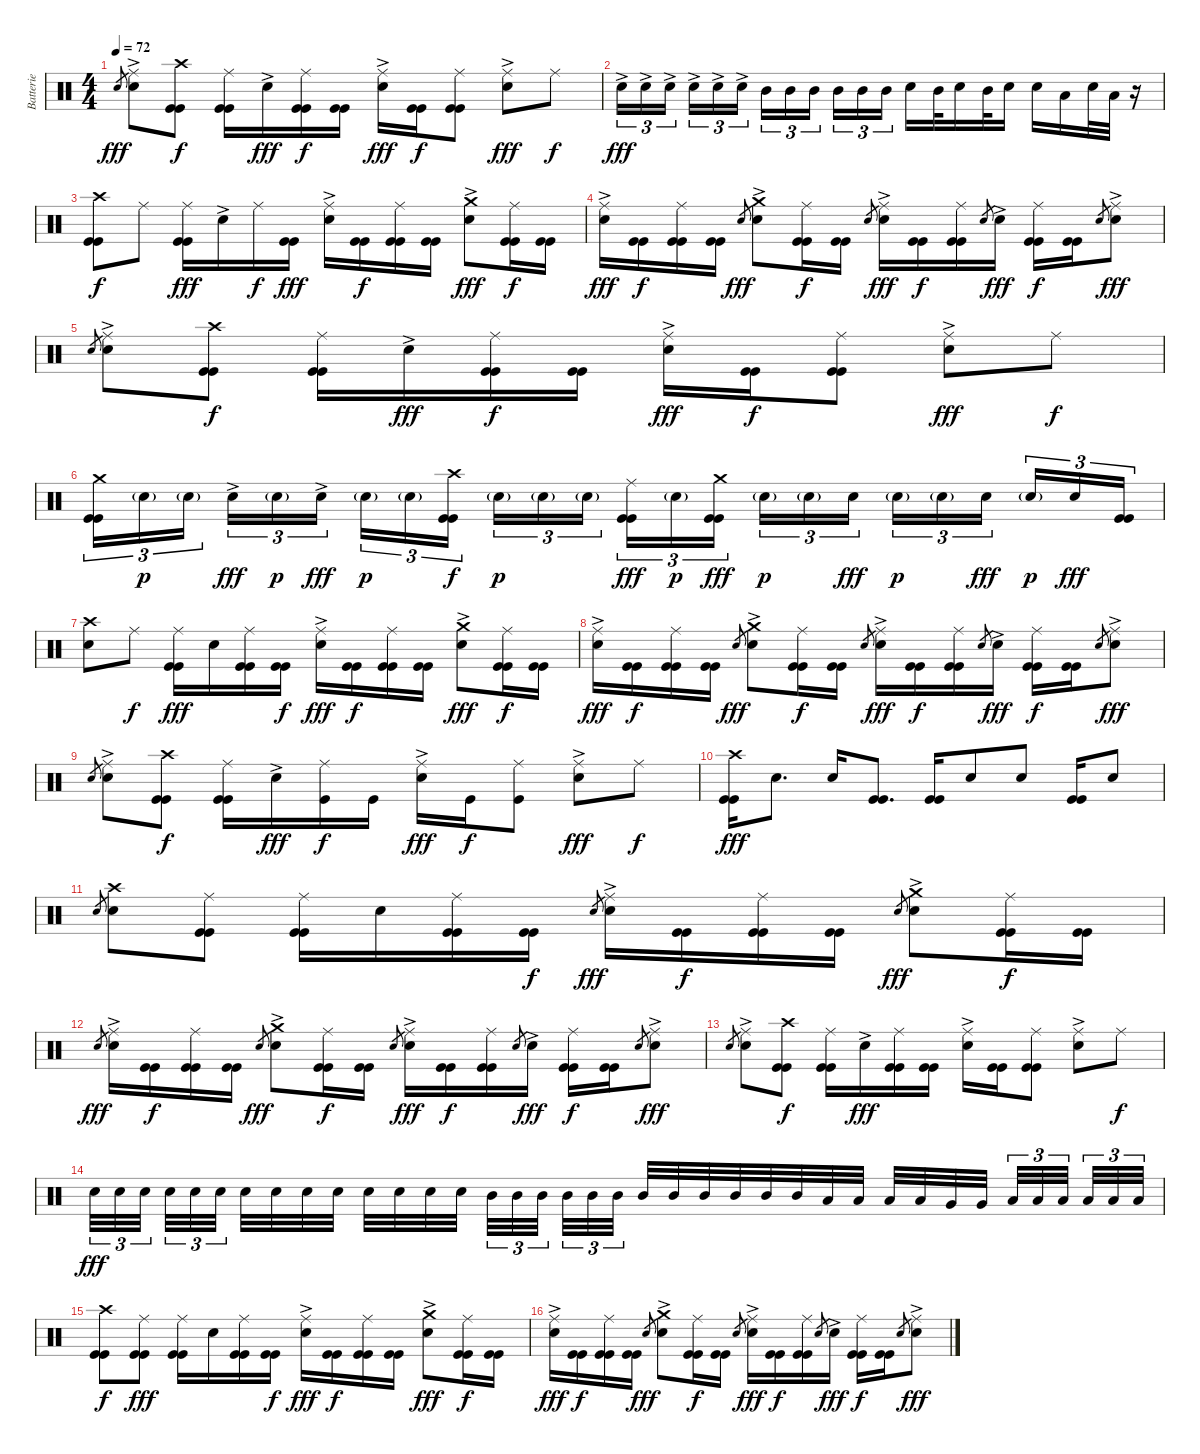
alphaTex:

\track ("Batterie" "Batterie") {instrument percussion}
\staff {score}
\articulation defaults
\ts (4 4)
\tempo 72
\clef neutral
\ks c "Electric Snare (hit)".8{gr dy fff}
("Ride (middle)" "Electric Snare (hit)"{ac}).8 ("Crash high (hit)" "Kick (hit)" "Kick (hit)").8{dy f} ("Ride (middle)" "Kick (hit)" "Kick (hit)").16 "Electric Snare (hit)"{ac}.16{dy fff} ("Ride (middle)" "Kick (hit)" "Kick (hit)").16{dy f} ("Kick (hit)" "Kick (hit)").16 ("Ride (middle)" "Electric Snare (hit)"{ac}).16{dy fff} ("Kick (hit)" "Kick (hit)").16{dy f} ("Ride (middle)" "Kick (hit)" "Kick (hit)").8 ("Ride (middle)" "Electric Snare (hit)"{ac}).8{dy fff} "Ride (middle)".8{dy f} |
"Electric Snare (hit)"{ac}.16{tu (3 2) dy fff} "Electric Snare (hit)"{ac}.16{tu (3 2)} "Electric Snare (hit)"{ac}.16{tu (3 2)} "Electric Snare (hit)"{ac}.16{tu (3 2)} "Electric Snare (hit)"{ac}.16{tu (3 2)} "Electric Snare (hit)"{ac}.16{tu (3 2)} "Mid Tom (hit)".16{tu (3 2)} "Mid Tom (hit)".16{tu (3 2)} "Mid Tom (hit)".16{tu (3 2)} "Mid Tom (hit)".16{tu (3 2)} "Mid Tom (hit)".16{tu (3 2)} "Mid Tom (hit)".16{tu (3 2)} "Electric Snare (hit)".16 "Mid Tom (hit)".32 "Electric Snare (hit)".16 "Mid Tom (hit)".32 "Electric Snare (hit)".16 "Electric Snare (hit)".16 "Low Tom (hit)".16 "Electric Snare (hit)".32 "Low Tom (hit)".32 r.16 |
("Crash high (hit)" "Kick (hit)" "Kick (hit)").8{dy f} "Ride (middle)".8 ("Ride (middle)" "Kick (hit)" "Kick (hit)").16{dy fff} "Electric Snare (hit)"{ac}.16 "Ride (middle)".16{dy f} ("Kick (hit)" "Kick (hit)").16{dy fff} ("Ride (middle)" "Electric Snare (hit)"{ac}).16 ("Kick (hit)" "Kick (hit)").16{dy f} ("Ride (middle)" "Kick (hit)" "Kick (hit)").16 ("Kick (hit)" "Kick (hit)").16 ("Crash medium (hit)" "Electric Snare (hit)"{ac}).8{dy fff} ("Ride (middle)" "Kick (hit)" "Kick (hit)").16{dy f} ("Kick (hit)" "Kick (hit)").16 |
("Ride (middle)" "Electric Snare (hit)"{ac}).16{dy fff} ("Kick (hit)" "Kick (hit)").16{dy f} ("Ride (middle)" "Kick (hit)" "Kick (hit)").16 ("Kick (hit)" "Kick (hit)").16 "Electric Snare (hit)".8{gr dy fff} ("Crash medium (hit)" "Electric Snare (hit)"{ac}).8 ("Ride (middle)" "Kick (hit)" "Kick (hit)").16{dy f} ("Kick (hit)" "Kick (hit)").16 "Electric Snare (hit)".8{gr} ("Ride (middle)" "Electric Snare (hit)"{ac}).16{dy fff} ("Kick (hit)" "Kick (hit)").16{dy f} ("Ride (middle)" "Kick (hit)" "Kick (hit)").16 "Electric Snare (hit)".8{gr} "Electric Snare (hit)"{ac}.16{dy fff} ("Ride (middle)" "Kick (hit)" "Kick (hit)").16{dy f} ("Kick (hit)" "Kick (hit)").16 "Electric Snare (hit)".8{gr} ("Ride (middle)" "Electric Snare (hit)"{ac}).8{dy fff} |
"Electric Snare (hit)".8{gr} ("Ride (middle)" "Electric Snare (hit)"{ac}).8 ("Crash high (hit)" "Kick (hit)" "Kick (hit)").8{dy f} ("Ride (middle)" "Kick (hit)" "Kick (hit)").16 "Electric Snare (hit)"{ac}.16{dy fff} ("Ride (middle)" "Kick (hit)" "Kick (hit)").16{dy f} ("Kick (hit)" "Kick (hit)").16 ("Ride (middle)" "Electric Snare (hit)"{ac}).16{dy fff} ("Kick (hit)" "Kick (hit)").16{dy f} ("Ride (middle)" "Kick (hit)" "Kick (hit)").8 ("Ride (middle)" "Electric Snare (hit)"{ac}).8{dy fff} "Ride (middle)".8{dy f} |
("Crash medium (hit)" "Kick (hit)" "Kick (hit)").16{tu (3 2)} "Electric Snare (hit)"{g}.16{tu (3 2) dy p} "Electric Snare (hit)"{g}.16{tu (3 2)} "Electric Snare (hit)"{ac}.16{tu (3 2) dy fff} "Electric Snare (hit)"{g}.16{tu (3 2) dy p} "Electric Snare (hit)"{ac}.16{tu (3 2) dy fff} "Electric Snare (hit)"{g}.16{tu (3 2) dy p} "Electric Snare (hit)"{g}.16{tu (3 2)} ("Crash high (hit)" "Kick (hit)" "Kick (hit)").16{tu (3 2) dy f} "Electric Snare (hit)"{g}.16{tu (3 2) dy p} "Electric Snare (hit)"{g}.16{tu (3 2)} "Electric Snare (hit)"{g}.16{tu (3 2)} ("Ride (middle)" "Kick (hit)" "Kick (hit)").16{tu (3 2) dy fff} "Electric Snare (hit)"{g}.16{tu (3 2) dy p} ("Crash medium (hit)" "Kick (hit)" "Kick (hit)").16{tu (3 2) dy fff} "Electric Snare (hit)"{g}.16{tu (3 2) dy p} "Electric Snare (hit)"{g}.16{tu (3 2)} "Electric Snare (hit)".16{tu (3 2) dy fff} "Electric Snare (hit)"{g}.16{tu (3 2) dy p} "Electric Snare (hit)"{g}.16{tu (3 2)} "Electric Snare (hit)".16{tu (3 2) dy fff} "Electric Snare (hit)"{g}.16{tu (3 2) dy p} "Electric Snare (hit)".16{tu (3 2) dy fff} ("Kick (hit)" "Kick (hit)").16{tu (3 2)} |
("Crash high (hit)" "Electric Snare (hit)").8 "Ride (middle)".8{dy f} ("Ride (middle)" "Kick (hit)" "Kick (hit)").16{dy fff} "Electric Snare (hit)".16 ("Ride (middle)" "Kick (hit)" "Kick (hit)").16 ("Kick (hit)" "Kick (hit)").16{dy f} ("Ride (middle)" "Electric Snare (hit)"{ac}).16{dy fff} ("Kick (hit)" "Kick (hit)").16{dy f} ("Ride (middle)" "Kick (hit)" "Kick (hit)").16 ("Kick (hit)" "Kick (hit)").16 ("Crash medium (hit)" "Electric Snare (hit)"{ac}).8{dy fff} ("Ride (middle)" "Kick (hit)" "Kick (hit)").16{dy f} ("Kick (hit)" "Kick (hit)").16 |
("Ride (middle)" "Electric Snare (hit)"{ac}).16{dy fff} ("Kick (hit)" "Kick (hit)").16{dy f} ("Ride (middle)" "Kick (hit)" "Kick (hit)").16 ("Kick (hit)" "Kick (hit)").16 "Electric Snare (hit)".8{gr dy fff} ("Crash medium (hit)" "Electric Snare (hit)"{ac}).8 ("Ride (middle)" "Kick (hit)" "Kick (hit)").16{dy f} ("Kick (hit)" "Kick (hit)").16 "Electric Snare (hit)".8{gr} ("Ride (middle)" "Electric Snare (hit)"{ac}).16{dy fff} ("Kick (hit)" "Kick (hit)").16{dy f} ("Ride (middle)" "Kick (hit)" "Kick (hit)").16 "Electric Snare (hit)".8{gr} "Electric Snare (hit)"{ac}.16{dy fff} ("Ride (middle)" "Kick (hit)" "Kick (hit)").16{dy f} ("Kick (hit)" "Kick (hit)").16 "Electric Snare (hit)".8{gr} ("Ride (middle)" "Electric Snare (hit)"{ac}).8{dy fff} |
"Electric Snare (hit)".8{gr} ("Ride (middle)" "Electric Snare (hit)"{ac}).8 ("Crash high (hit)" "Kick (hit)" "Kick (hit)").8{dy f} ("Ride (middle)" "Kick (hit)" "Kick (hit)").16 "Electric Snare (hit)"{ac}.16{dy fff} ("Ride (middle)" "Kick (hit)").16{dy f} "Kick (hit)".16 ("Ride (middle)" "Electric Snare (hit)"{ac}).16{dy fff} "Kick (hit)".16{dy f} ("Ride (middle)" "Kick (hit)").8 ("Ride (middle)" "Electric Snare (hit)"{ac}).8{dy fff} "Ride (middle)".8{dy f} |
("Crash high (hit)" "Kick (hit)" "Kick (hit)").16{dy fff} "Electric Snare (hit)".8{d} "Electric Snare (hit)".16 ("Kick (hit)" "Kick (hit)").8{d} ("Kick (hit)" "Kick (hit)").16 "Electric Snare (hit)".8 "Electric Snare (hit)".8 ("Kick (hit)" "Kick (hit)").16 "Electric Snare (hit)".8 |
"Electric Snare (hit)".8{gr} ("Crash high (hit)" "Electric Snare (hit)").8 ("Ride (middle)" "Kick (hit)" "Kick (hit)").8 ("Ride (middle)" "Kick (hit)" "Kick (hit)").16 "Electric Snare (hit)".16 ("Ride (middle)" "Kick (hit)" "Kick (hit)").16 ("Kick (hit)" "Kick (hit)").16{dy f} "Electric Snare (hit)".8{gr dy fff} ("Ride (middle)" "Electric Snare (hit)"{ac}).16 ("Kick (hit)" "Kick (hit)").16{dy f} ("Ride (middle)" "Kick (hit)" "Kick (hit)").16 ("Kick (hit)" "Kick (hit)").16 "Electric Snare (hit)".8{gr dy fff} ("Crash medium (hit)" "Electric Snare (hit)"{ac}).8 ("Ride (middle)" "Kick (hit)" "Kick (hit)").16{dy f} ("Kick (hit)" "Kick (hit)").16 |
"Electric Snare (hit)".8{gr dy fff} ("Ride (middle)" "Electric Snare (hit)"{ac}).16 ("Kick (hit)" "Kick (hit)").16{dy f} ("Ride (middle)" "Kick (hit)" "Kick (hit)").16 ("Kick (hit)" "Kick (hit)").16 "Electric Snare (hit)".8{gr dy fff} ("Crash medium (hit)" "Electric Snare (hit)"{ac}).8 ("Ride (middle)" "Kick (hit)" "Kick (hit)").16{dy f} ("Kick (hit)" "Kick (hit)").16 "Electric Snare (hit)".8{gr} ("Ride (middle)" "Electric Snare (hit)"{ac}).16{dy fff} ("Kick (hit)" "Kick (hit)").16{dy f} ("Ride (middle)" "Kick (hit)" "Kick (hit)").16 "Electric Snare (hit)".8{gr} "Electric Snare (hit)"{ac}.16{dy fff} ("Ride (middle)" "Kick (hit)" "Kick (hit)").16{dy f} ("Kick (hit)" "Kick (hit)").16 "Electric Snare (hit)".8{gr} ("Ride (middle)" "Electric Snare (hit)"{ac}).8{dy fff} |
"Electric Snare (hit)".8{gr} ("Ride (middle)" "Electric Snare (hit)"{ac}).8 ("Crash high (hit)" "Kick (hit)" "Kick (hit)").8{dy f} ("Ride (middle)" "Kick (hit)" "Kick (hit)").16 "Electric Snare (hit)"{ac}.16{dy fff} ("Ride (middle)" "Kick (hit)" "Kick (hit)").16 ("Kick (hit)" "Kick (hit)").16 ("Ride (middle)" "Electric Snare (hit)"{ac}).16 ("Kick (hit)" "Kick (hit)").16 ("Ride (middle)" "Kick (hit)" "Kick (hit)").8 ("Ride (middle)" "Electric Snare (hit)"{ac}).8 "Ride (middle)".8{dy f} |
"Electric Snare (hit)".32{tu (3 2) dy fff} "Electric Snare (hit)".32{tu (3 2)} "Electric Snare (hit)".32{tu (3 2)} "Electric Snare (hit)".32{tu (3 2)} "Electric Snare (hit)".32{tu (3 2)} "Electric Snare (hit)".32{tu (3 2)} "Electric Snare (hit)".32 "Electric Snare (hit)".32 "Electric Snare (hit)".32 "Electric Snare (hit)".32 "Electric Snare (hit)".32 "Electric Snare (hit)".32 "Electric Snare (hit)".32 "Electric Snare (hit)".32 "Mid Tom (hit)".32{tu (3 2)} "Mid Tom (hit)".32{tu (3 2)} "Mid Tom (hit)".32{tu (3 2)} "Mid Tom (hit)".32{tu (3 2)} "Mid Tom (hit)".32{tu (3 2)} "Mid Tom (hit)".32{tu (3 2)} "Mid Tom (hit)".32 "Mid Tom (hit)".32 "Mid Tom (hit)".32 "Mid Tom (hit)".32 "Mid Tom (hit)".32 "Mid Tom (hit)".32 "Low Tom (hit)".32 "Low Tom (hit)".32 "Low Tom (hit)".32 "Low Tom (hit)".32 "Very Low Tom (hit)".32 "Very Low Tom (hit)".32 "Low Floor Tom (hit)".32{tu (3 2)} "Low Floor Tom (hit)".32{tu (3 2)} "Low Floor Tom (hit)".32{tu (3 2)} "Low Floor Tom (hit)".32{tu (3 2)} "Low Floor Tom (hit)".32{tu (3 2)} "Low Floor Tom (hit)".32{tu (3 2)} |
("Crash high (hit)" "Kick (hit)" "Kick (hit)").8{dy f} ("Ride (middle)" "Kick (hit)" "Kick (hit)").8{dy fff} ("Ride (middle)" "Kick (hit)" "Kick (hit)").16 "Electric Snare (hit)".16 ("Ride (middle)" "Kick (hit)" "Kick (hit)").16 ("Kick (hit)" "Kick (hit)").16{dy f} ("Ride (middle)" "Electric Snare (hit)"{ac}).16{dy fff} ("Kick (hit)" "Kick (hit)").16{dy f} ("Ride (middle)" "Kick (hit)" "Kick (hit)").16 ("Kick (hit)" "Kick (hit)").16 ("Crash medium (hit)" "Electric Snare (hit)"{ac}).8{dy fff} ("Ride (middle)" "Kick (hit)" "Kick (hit)").16{dy f} ("Kick (hit)" "Kick (hit)").16 |
("Ride (middle)" "Electric Snare (hit)"{ac}).16{dy fff} ("Kick (hit)" "Kick (hit)").16{dy f} ("Ride (middle)" "Kick (hit)" "Kick (hit)").16 ("Kick (hit)" "Kick (hit)").16 "Electric Snare (hit)".8{gr dy fff} ("Crash medium (hit)" "Electric Snare (hit)"{ac}).8 ("Ride (middle)" "Kick (hit)" "Kick (hit)").16{dy f} ("Kick (hit)" "Kick (hit)").16 "Electric Snare (hit)".8{gr} ("Ride (middle)" "Electric Snare (hit)"{ac}).16{dy fff} ("Kick (hit)" "Kick (hit)").16{dy f} ("Ride (middle)" "Kick (hit)" "Kick (hit)").16 "Electric Snare (hit)".8{gr} "Electric Snare (hit)"{ac}.16{dy fff} ("Ride (middle)" "Kick (hit)" "Kick (hit)").16{dy f} ("Kick (hit)" "Kick (hit)").16 "Electric Snare (hit)".8{gr} ("Ride (middle)" "Electric Snare (hit)"{ac}).8{dy fff}
